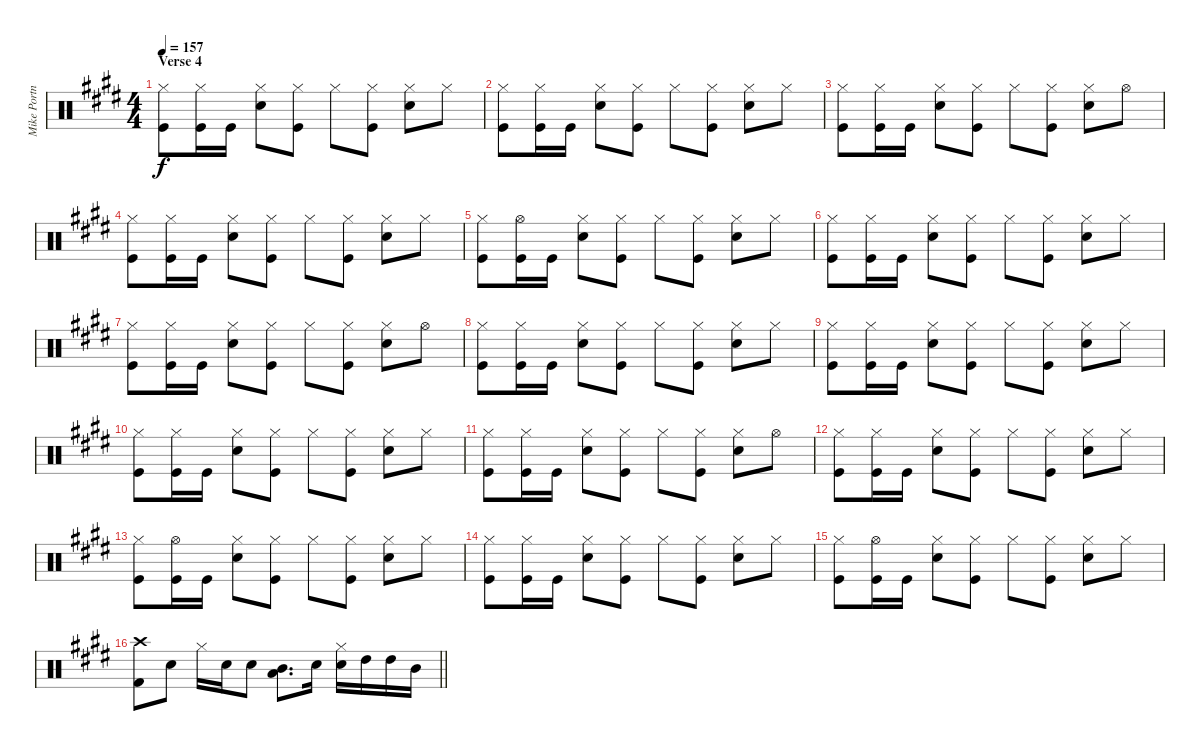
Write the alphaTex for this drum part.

\track ("Mike Portnoy" "Mike Portn") {instrument percussion}
\staff {score}
\articulation defaults
\ts (4 4)
\section ("" "Verse 4")
\tempo 157
\clef neutral
\ks e
("Kick (hit)" "Hi-Hat (closed)").8{dy f} ("Kick (hit)" "Hi-Hat (closed)").16 "Kick (hit)".16 ("Snare (hit) 2" "Hi-Hat (closed)").8 ("Kick (hit)" "Hi-Hat (closed)").8 "Hi-Hat (closed)".8 ("Kick (hit)" "Hi-Hat (closed)").8 ("Snare (hit) 2" "Hi-Hat (closed)").8 "Hi-Hat (closed)".8 |
\ks c#minor
("Kick (hit)" "Hi-Hat (closed)").8 ("Kick (hit)" "Hi-Hat (closed)").16 "Kick (hit)".16 ("Snare (hit) 2" "Hi-Hat (closed)").8 ("Kick (hit)" "Hi-Hat (closed)").8 "Hi-Hat (closed)".8 ("Kick (hit)" "Hi-Hat (closed)").8 ("Snare (hit) 2" "Hi-Hat (closed)").8 "Hi-Hat (closed)".8 |
("Kick (hit)" "Hi-Hat (closed)").8 ("Kick (hit)" "Hi-Hat (closed)").16 "Kick (hit)".16 ("Snare (hit) 2" "Hi-Hat (closed)").8 ("Kick (hit)" "Hi-Hat (closed)").8 "Hi-Hat (closed)".8 ("Kick (hit)" "Hi-Hat (closed)").8 ("Snare (hit) 2" "Hi-Hat (closed)").8 "Hi-Hat (open)".8 |
("Kick (hit)" "Hi-Hat (closed)").8 ("Kick (hit)" "Hi-Hat (closed)").16 "Kick (hit)".16 ("Snare (hit) 2" "Hi-Hat (closed)").8 ("Kick (hit)" "Hi-Hat (closed)").8 "Hi-Hat (closed)".8 ("Kick (hit)" "Hi-Hat (closed)").8 ("Snare (hit) 2" "Hi-Hat (closed)").8 "Hi-Hat (closed)".8 |
\ks e
("Kick (hit)" "Hi-Hat (closed)").8 ("Kick (hit)" "Hi-Hat (open)").16 "Kick (hit)".16 ("Snare (hit) 2" "Hi-Hat (closed)").8 ("Kick (hit)" "Hi-Hat (closed)").8 "Hi-Hat (closed)".8 ("Kick (hit)" "Hi-Hat (closed)").8 ("Snare (hit) 2" "Hi-Hat (closed)").8 "Hi-Hat (closed)".8 |
\ks c#minor
("Kick (hit)" "Hi-Hat (closed)").8 ("Kick (hit)" "Hi-Hat (closed)").16 "Kick (hit)".16 ("Snare (hit) 2" "Hi-Hat (closed)").8 ("Kick (hit)" "Hi-Hat (closed)").8 "Hi-Hat (closed)".8 ("Kick (hit)" "Hi-Hat (closed)").8 ("Snare (hit) 2" "Hi-Hat (closed)").8 "Hi-Hat (closed)".8 |
("Kick (hit)" "Hi-Hat (closed)").8 ("Kick (hit)" "Hi-Hat (closed)").16 "Kick (hit)".16 ("Snare (hit) 2" "Hi-Hat (closed)").8 ("Kick (hit)" "Hi-Hat (closed)").8 "Hi-Hat (closed)".8 ("Kick (hit)" "Hi-Hat (closed)").8 ("Snare (hit) 2" "Hi-Hat (closed)").8 "Hi-Hat (open)".8 |
("Kick (hit)" "Hi-Hat (closed)").8 ("Kick (hit)" "Hi-Hat (closed)").16 "Kick (hit)".16 ("Snare (hit) 2" "Hi-Hat (closed)").8 ("Kick (hit)" "Hi-Hat (closed)").8 "Hi-Hat (closed)".8 ("Kick (hit)" "Hi-Hat (closed)").8 ("Snare (hit) 2" "Hi-Hat (closed)").8 "Hi-Hat (closed)".8 |
\ks e
("Kick (hit)" "Hi-Hat (closed)").8 ("Kick (hit)" "Hi-Hat (closed)").16 "Kick (hit)".16 ("Snare (hit) 2" "Hi-Hat (closed)").8 ("Kick (hit)" "Hi-Hat (closed)").8 "Hi-Hat (closed)".8 ("Kick (hit)" "Hi-Hat (closed)").8 ("Snare (hit) 2" "Hi-Hat (closed)").8 "Hi-Hat (closed)".8 |
\ks c#minor
("Kick (hit)" "Hi-Hat (closed)").8 ("Kick (hit)" "Hi-Hat (closed)").16 "Kick (hit)".16 ("Snare (hit) 2" "Hi-Hat (closed)").8 ("Kick (hit)" "Hi-Hat (closed)").8 "Hi-Hat (closed)".8 ("Kick (hit)" "Hi-Hat (closed)").8 ("Snare (hit) 2" "Hi-Hat (closed)").8 "Hi-Hat (closed)".8 |
("Kick (hit)" "Hi-Hat (closed)").8 ("Kick (hit)" "Hi-Hat (closed)").16 "Kick (hit)".16 ("Snare (hit) 2" "Hi-Hat (closed)").8 ("Kick (hit)" "Hi-Hat (closed)").8 "Hi-Hat (closed)".8 ("Kick (hit)" "Hi-Hat (closed)").8 ("Snare (hit) 2" "Hi-Hat (closed)").8 "Hi-Hat (open)".8 |
("Kick (hit)" "Hi-Hat (closed)").8 ("Kick (hit)" "Hi-Hat (closed)").16 "Kick (hit)".16 ("Snare (hit) 2" "Hi-Hat (closed)").8 ("Kick (hit)" "Hi-Hat (closed)").8 "Hi-Hat (closed)".8 ("Kick (hit)" "Hi-Hat (closed)").8 ("Snare (hit) 2" "Hi-Hat (closed)").8 "Hi-Hat (closed)".8 |
\ks e
("Kick (hit)" "Hi-Hat (closed)").8 ("Kick (hit)" "Hi-Hat (open)").16 "Kick (hit)".16 ("Snare (hit) 2" "Hi-Hat (closed)").8 ("Kick (hit)" "Hi-Hat (closed)").8 "Hi-Hat (closed)".8 ("Kick (hit)" "Hi-Hat (closed)").8 ("Snare (hit) 2" "Hi-Hat (closed)").8 "Hi-Hat (closed)".8 |
\ks c#minor
("Kick (hit)" "Hi-Hat (closed)").8 ("Kick (hit)" "Hi-Hat (closed)").16 "Kick (hit)".16 ("Snare (hit) 2" "Hi-Hat (closed)").8 ("Kick (hit)" "Hi-Hat (closed)").8 "Hi-Hat (closed)".8 ("Kick (hit)" "Hi-Hat (closed)").8 ("Snare (hit) 2" "Hi-Hat (closed)").8 "Hi-Hat (closed)".8 |
\ks e
("Kick (hit)" "Hi-Hat (closed)").8 ("Kick (hit)" "Hi-Hat (open)").16 "Kick (hit)".16 ("Snare (hit) 2" "Hi-Hat (closed)").8 ("Kick (hit)" "Hi-Hat (closed)").8 "Hi-Hat (closed)".8 ("Kick (hit)" "Hi-Hat (closed)").8 ("Snare (hit) 2" "Hi-Hat (closed)").8 "Hi-Hat (closed)".8 |
\barLineRight lightlight
\ks c#minor
("Kick (hit) 2" "Crash high (hit)").8 "Snare (hit) 2".8 "Hi-Hat (closed)".16 "Snare (hit) 2".16 "Snare (hit) 2".8 ("Mid Tom (hit)" "Low Tom (hit)").8{d} "Snare (hit) 2".16 ("Snare (hit) 2" "Hi-Hat (closed)").16 "High Tom (hit)".16 "High Tom (hit)".16 "Mid Tom (hit)".16
